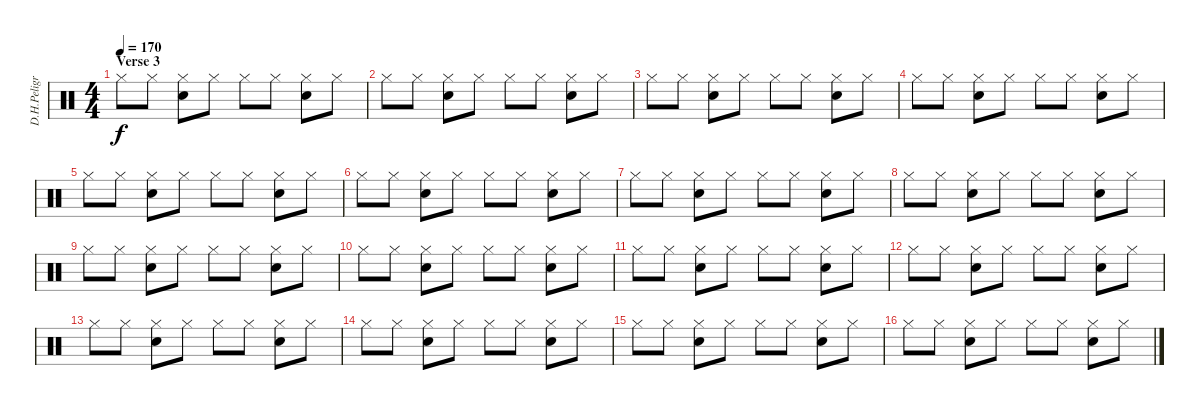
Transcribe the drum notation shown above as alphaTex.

\track ("D.H.Peligro" "D.H.Peligr") {instrument percussion}
\staff {score}
\articulation defaults
\ts (4 4)
\section ("" "Verse 3")
\tempo 170
\clef neutral
\ks c "Hi-Hat (closed)".8{dy f} "Hi-Hat (closed)".8
("Hi-Hat (closed)" "Electric Snare (hit)").8 "Hi-Hat (closed)".8 "Hi-Hat (closed)".8 "Hi-Hat (closed)".8 ("Hi-Hat (closed)" "Electric Snare (hit)").8 "Hi-Hat (closed)".8 |
"Hi-Hat (closed)".8 "Hi-Hat (closed)".8 ("Hi-Hat (closed)" "Electric Snare (hit)").8 "Hi-Hat (closed)".8 "Hi-Hat (closed)".8 "Hi-Hat (closed)".8 ("Hi-Hat (closed)" "Electric Snare (hit)").8 "Hi-Hat (closed)".8 |
"Hi-Hat (closed)".8 "Hi-Hat (closed)".8 ("Hi-Hat (closed)" "Electric Snare (hit)").8 "Hi-Hat (closed)".8 "Hi-Hat (closed)".8 "Hi-Hat (closed)".8 ("Hi-Hat (closed)" "Electric Snare (hit)").8 "Hi-Hat (closed)".8 |
"Hi-Hat (closed)".8 "Hi-Hat (closed)".8 ("Hi-Hat (closed)" "Electric Snare (hit)").8 "Hi-Hat (closed)".8 "Hi-Hat (closed)".8 "Hi-Hat (closed)".8 ("Hi-Hat (closed)" "Electric Snare (hit)").8 "Hi-Hat (closed)".8 |
"Hi-Hat (closed)".8 "Hi-Hat (closed)".8 ("Hi-Hat (closed)" "Electric Snare (hit)").8 "Hi-Hat (closed)".8 "Hi-Hat (closed)".8 "Hi-Hat (closed)".8 ("Hi-Hat (closed)" "Electric Snare (hit)").8 "Hi-Hat (closed)".8 |
"Hi-Hat (closed)".8 "Hi-Hat (closed)".8 ("Hi-Hat (closed)" "Electric Snare (hit)").8 "Hi-Hat (closed)".8 "Hi-Hat (closed)".8 "Hi-Hat (closed)".8 ("Hi-Hat (closed)" "Electric Snare (hit)").8 "Hi-Hat (closed)".8 |
"Hi-Hat (closed)".8 "Hi-Hat (closed)".8 ("Hi-Hat (closed)" "Electric Snare (hit)").8 "Hi-Hat (closed)".8 "Hi-Hat (closed)".8 "Hi-Hat (closed)".8 ("Hi-Hat (closed)" "Electric Snare (hit)").8 "Hi-Hat (closed)".8 |
"Hi-Hat (closed)".8 "Hi-Hat (closed)".8 ("Hi-Hat (closed)" "Electric Snare (hit)").8 "Hi-Hat (closed)".8 "Hi-Hat (closed)".8 "Hi-Hat (closed)".8 ("Hi-Hat (closed)" "Electric Snare (hit)").8 "Hi-Hat (closed)".8 |
"Hi-Hat (closed)".8 "Hi-Hat (closed)".8 ("Hi-Hat (closed)" "Electric Snare (hit)").8 "Hi-Hat (closed)".8 "Hi-Hat (closed)".8 "Hi-Hat (closed)".8 ("Hi-Hat (closed)" "Electric Snare (hit)").8 "Hi-Hat (closed)".8 |
"Hi-Hat (closed)".8 "Hi-Hat (closed)".8 ("Hi-Hat (closed)" "Electric Snare (hit)").8 "Hi-Hat (closed)".8 "Hi-Hat (closed)".8 "Hi-Hat (closed)".8 ("Hi-Hat (closed)" "Electric Snare (hit)").8 "Hi-Hat (closed)".8 |
"Hi-Hat (closed)".8 "Hi-Hat (closed)".8 ("Hi-Hat (closed)" "Electric Snare (hit)").8 "Hi-Hat (closed)".8 "Hi-Hat (closed)".8 "Hi-Hat (closed)".8 ("Hi-Hat (closed)" "Electric Snare (hit)").8 "Hi-Hat (closed)".8 |
"Hi-Hat (closed)".8 "Hi-Hat (closed)".8 ("Hi-Hat (closed)" "Electric Snare (hit)").8 "Hi-Hat (closed)".8 "Hi-Hat (closed)".8 "Hi-Hat (closed)".8 ("Hi-Hat (closed)" "Electric Snare (hit)").8 "Hi-Hat (closed)".8 |
"Hi-Hat (closed)".8 "Hi-Hat (closed)".8 ("Hi-Hat (closed)" "Electric Snare (hit)").8 "Hi-Hat (closed)".8 "Hi-Hat (closed)".8 "Hi-Hat (closed)".8 ("Hi-Hat (closed)" "Electric Snare (hit)").8 "Hi-Hat (closed)".8 |
"Hi-Hat (closed)".8 "Hi-Hat (closed)".8 ("Hi-Hat (closed)" "Electric Snare (hit)").8 "Hi-Hat (closed)".8 "Hi-Hat (closed)".8 "Hi-Hat (closed)".8 ("Hi-Hat (closed)" "Electric Snare (hit)").8 "Hi-Hat (closed)".8 |
"Hi-Hat (closed)".8 "Hi-Hat (closed)".8 ("Hi-Hat (closed)" "Electric Snare (hit)").8 "Hi-Hat (closed)".8 "Hi-Hat (closed)".8 "Hi-Hat (closed)".8 ("Hi-Hat (closed)" "Electric Snare (hit)").8 "Hi-Hat (closed)".8 |
"Hi-Hat (closed)".8 "Hi-Hat (closed)".8 ("Hi-Hat (closed)" "Electric Snare (hit)").8 "Hi-Hat (closed)".8 "Hi-Hat (closed)".8 "Hi-Hat (closed)".8 ("Hi-Hat (closed)" "Electric Snare (hit)").8 "Hi-Hat (closed)".8
